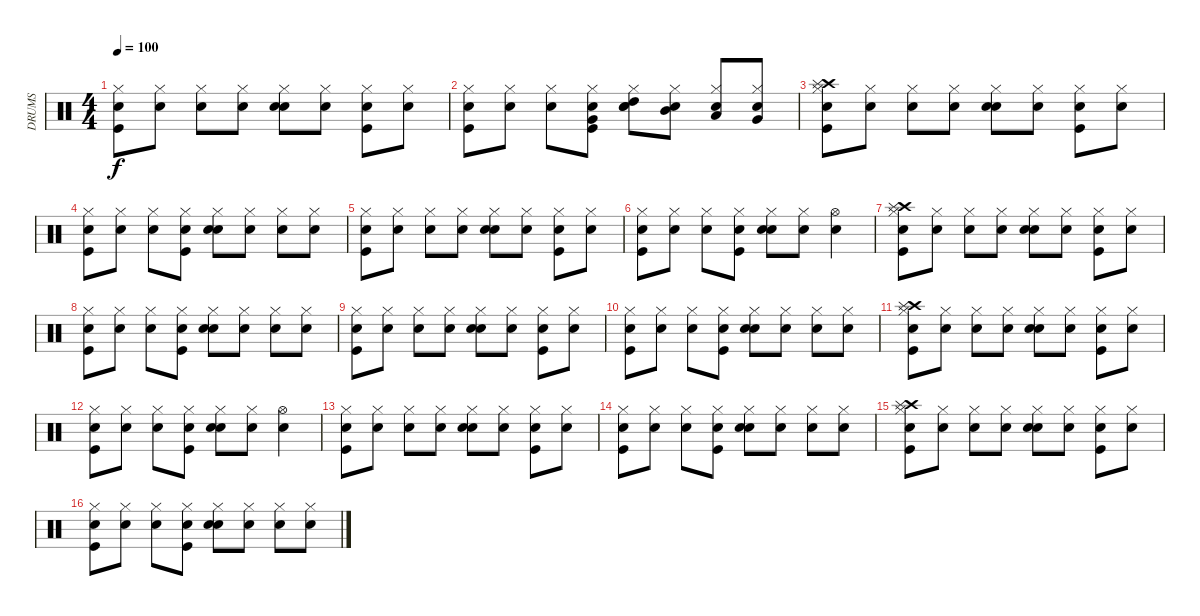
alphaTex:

\track ("DRUMS" "DRUMS") {instrument percussion}
\staff {score}
\articulation defaults
\ts (4 4)
\tempo 100
\clef neutral
\ks c
("Snare (hit)" "Kick (hit)" "Hi-Hat (closed)").8{dy f} ("Snare (hit)" "Hi-Hat (closed)").8 ("Snare (hit)" "Hi-Hat (closed)").8 ("Snare (hit)" "Hi-Hat (closed)").8 ("Snare (hit)" "Snare (hit) 2" "Hi-Hat (closed)").8 ("Snare (hit)" "Hi-Hat (closed)").8 ("Snare (hit)" "Kick (hit)" "Hi-Hat (closed)").8 ("Snare (hit)" "Hi-Hat (closed)").8 |
("Snare (hit)" "Kick (hit)" "Hi-Hat (closed)").8 ("Snare (hit)" "Hi-Hat (closed)").8 ("Snare (hit)" "Hi-Hat (closed)").8 ("Snare (hit)" "Very Low Tom (hit)" "Kick (hit)" "Hi-Hat (closed)").8 ("Snare (hit)" "High Tom (hit)" "Snare (hit) 2" "Hi-Hat (closed)").8 ("Snare (hit)" "Mid Tom (hit)" "Hi-Hat (closed)").8 ("Snare (hit)" "Low Tom (hit)" "Hi-Hat (closed)").8 ("Snare (hit)" "Very Low Tom (hit)" "Hi-Hat (closed)").8 |
("Snare (hit)" "Kick (hit)" "Crash high (hit)" "Splash (hit)" "Hi-Hat (closed)").8 ("Snare (hit)" "Hi-Hat (closed)").8 ("Snare (hit)" "Hi-Hat (closed)").8 ("Snare (hit)" "Hi-Hat (closed)").8 ("Snare (hit)" "Snare (hit) 2" "Hi-Hat (closed)").8 ("Snare (hit)" "Hi-Hat (closed)").8 ("Snare (hit)" "Kick (hit)" "Hi-Hat (closed)").8 ("Snare (hit)" "Hi-Hat (closed)").8 |
("Snare (hit)" "Kick (hit)" "Hi-Hat (closed)").8 ("Snare (hit)" "Hi-Hat (closed)").8 ("Snare (hit)" "Hi-Hat (closed)").8 ("Snare (hit)" "Kick (hit)" "Hi-Hat (closed)").8 ("Snare (hit)" "Snare (hit) 2" "Hi-Hat (closed)").8 ("Snare (hit)" "Hi-Hat (closed)").8 ("Snare (hit)" "Hi-Hat (closed)").8 ("Snare (hit)" "Hi-Hat (closed)").8 |
("Snare (hit)" "Kick (hit)" "Hi-Hat (closed)").8 ("Snare (hit)" "Hi-Hat (closed)").8 ("Snare (hit)" "Hi-Hat (closed)").8 ("Snare (hit)" "Hi-Hat (closed)").8 ("Snare (hit)" "Snare (hit) 2" "Hi-Hat (closed)").8 ("Snare (hit)" "Hi-Hat (closed)").8 ("Snare (hit)" "Kick (hit)" "Hi-Hat (closed)").8 ("Snare (hit)" "Hi-Hat (closed)").8 |
("Snare (hit)" "Kick (hit)" "Hi-Hat (closed)").8 ("Snare (hit)" "Hi-Hat (closed)").8 ("Snare (hit)" "Hi-Hat (closed)").8 ("Snare (hit)" "Kick (hit)" "Hi-Hat (closed)").8 ("Snare (hit)" "Snare (hit) 2" "Hi-Hat (closed)").8 ("Snare (hit)" "Hi-Hat (closed)").8 ("Snare (hit)" "Hi-Hat (open)").4 |
("Snare (hit)" "Kick (hit)" "Crash high (hit)" "Splash (hit)" "Hi-Hat (closed)").8 ("Snare (hit)" "Hi-Hat (closed)").8 ("Snare (hit)" "Hi-Hat (closed)").8 ("Snare (hit)" "Hi-Hat (closed)").8 ("Snare (hit)" "Snare (hit) 2" "Hi-Hat (closed)").8 ("Snare (hit)" "Hi-Hat (closed)").8 ("Snare (hit)" "Kick (hit)" "Hi-Hat (closed)").8 ("Snare (hit)" "Hi-Hat (closed)").8 |
("Snare (hit)" "Kick (hit)" "Hi-Hat (closed)").8 ("Snare (hit)" "Hi-Hat (closed)").8 ("Snare (hit)" "Hi-Hat (closed)").8 ("Snare (hit)" "Kick (hit)" "Hi-Hat (closed)").8 ("Snare (hit)" "Snare (hit) 2" "Hi-Hat (closed)").8 ("Snare (hit)" "Hi-Hat (closed)").8 ("Snare (hit)" "Hi-Hat (closed)").8 ("Snare (hit)" "Hi-Hat (closed)").8 |
("Snare (hit)" "Kick (hit)" "Hi-Hat (closed)").8 ("Snare (hit)" "Hi-Hat (closed)").8 ("Snare (hit)" "Hi-Hat (closed)").8 ("Snare (hit)" "Hi-Hat (closed)").8 ("Snare (hit)" "Snare (hit) 2" "Hi-Hat (closed)").8 ("Snare (hit)" "Hi-Hat (closed)").8 ("Snare (hit)" "Kick (hit)" "Hi-Hat (closed)").8 ("Snare (hit)" "Hi-Hat (closed)").8 |
("Snare (hit)" "Kick (hit)" "Hi-Hat (closed)").8 ("Snare (hit)" "Hi-Hat (closed)").8 ("Snare (hit)" "Hi-Hat (closed)").8 ("Snare (hit)" "Kick (hit)" "Hi-Hat (closed)").8 ("Snare (hit)" "Snare (hit) 2" "Hi-Hat (closed)").8 ("Snare (hit)" "Hi-Hat (closed)").8 ("Snare (hit)" "Hi-Hat (closed)").8 ("Snare (hit)" "Hi-Hat (closed)").8 |
("Snare (hit)" "Kick (hit)" "Crash high (hit)" "Splash (hit)" "Hi-Hat (closed)").8 ("Snare (hit)" "Hi-Hat (closed)").8 ("Snare (hit)" "Hi-Hat (closed)").8 ("Snare (hit)" "Hi-Hat (closed)").8 ("Snare (hit)" "Snare (hit) 2" "Hi-Hat (closed)").8 ("Snare (hit)" "Hi-Hat (closed)").8 ("Snare (hit)" "Kick (hit)" "Hi-Hat (closed)").8 ("Snare (hit)" "Hi-Hat (closed)").8 |
("Snare (hit)" "Kick (hit)" "Hi-Hat (closed)").8 ("Snare (hit)" "Hi-Hat (closed)").8 ("Snare (hit)" "Hi-Hat (closed)").8 ("Snare (hit)" "Kick (hit)" "Hi-Hat (closed)").8 ("Snare (hit)" "Snare (hit) 2" "Hi-Hat (closed)").8 ("Snare (hit)" "Hi-Hat (closed)").8 ("Snare (hit)" "Hi-Hat (open)").4 |
("Snare (hit)" "Kick (hit)" "Hi-Hat (closed)").8 ("Snare (hit)" "Hi-Hat (closed)").8 ("Snare (hit)" "Hi-Hat (closed)").8 ("Snare (hit)" "Hi-Hat (closed)").8 ("Snare (hit)" "Snare (hit) 2" "Hi-Hat (closed)").8 ("Snare (hit)" "Hi-Hat (closed)").8 ("Snare (hit)" "Kick (hit)" "Hi-Hat (closed)").8 ("Snare (hit)" "Hi-Hat (closed)").8 |
("Snare (hit)" "Kick (hit)" "Hi-Hat (closed)").8 ("Snare (hit)" "Hi-Hat (closed)").8 ("Snare (hit)" "Hi-Hat (closed)").8 ("Snare (hit)" "Kick (hit)" "Hi-Hat (closed)").8 ("Snare (hit)" "Snare (hit) 2" "Hi-Hat (closed)").8 ("Snare (hit)" "Hi-Hat (closed)").8 ("Snare (hit)" "Hi-Hat (closed)").8 ("Snare (hit)" "Hi-Hat (closed)").8 |
("Snare (hit)" "Kick (hit)" "Crash high (hit)" "Splash (hit)" "Hi-Hat (closed)").8 ("Snare (hit)" "Hi-Hat (closed)").8 ("Snare (hit)" "Hi-Hat (closed)").8 ("Snare (hit)" "Hi-Hat (closed)").8 ("Snare (hit)" "Snare (hit) 2" "Hi-Hat (closed)").8 ("Snare (hit)" "Hi-Hat (closed)").8 ("Snare (hit)" "Kick (hit)" "Hi-Hat (closed)").8 ("Snare (hit)" "Hi-Hat (closed)").8 |
("Snare (hit)" "Kick (hit)" "Hi-Hat (closed)").8 ("Snare (hit)" "Hi-Hat (closed)").8 ("Snare (hit)" "Hi-Hat (closed)").8 ("Snare (hit)" "Kick (hit)" "Hi-Hat (closed)").8 ("Snare (hit)" "Snare (hit) 2" "Hi-Hat (closed)").8 ("Snare (hit)" "Hi-Hat (closed)").8 ("Snare (hit)" "Hi-Hat (closed)").8 ("Snare (hit)" "Hi-Hat (closed)").8
